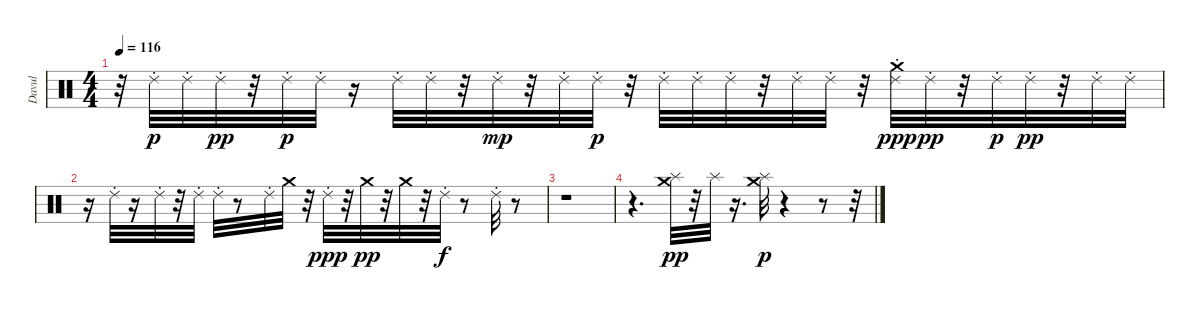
\track ("Davul" "Davul") {instrument percussion}
\staff {score}
\articulation defaults
\ts (4 4)
\tempo 116
\clef neutral
\ks c
r.32{dy p} "Ride (choke) 2".32 "Ride (choke) 2".32 "Ride (choke) 2".32{dy pp} r.32 "Ride (choke) 2".32{dy p} "Ride (choke) 2".32 r.16 "Ride (choke) 2".32 "Ride (choke) 2".32 r.32 "Ride (choke) 2".32{dy mp} r.32 "Ride (choke) 2".32 "Ride (choke) 2".32{dy p} r.32 "Ride (choke) 2".32 "Ride (choke) 2".32 "Ride (choke) 2".32 r.32 "Ride (choke) 2".32 "Ride (choke) 2".32 r.32 ("Ride (choke) 2" "Crash medium (hit)").32{dy ppp} "Ride (choke) 2".32{dy pp} r.32 "Ride (choke) 2".32{dy p} "Ride (choke) 2".32{dy pp} r.32 "Ride (choke) 2".32 "Ride (choke) 2".32 |
r.16 "Ride (choke) 2".32 r.16 "Ride (choke) 2".32 r.32 "Ride (choke) 2".32 "Ride (choke) 2".32 r.8 "Ride (choke) 2".32 "Crash medium (hit)".32 r.32 "Ride (choke) 2".32{dy ppp} r.32 "Crash medium (hit)".32{dy pp} r.32 "Crash medium (hit)".32 r.32 "Ride (choke) 2".32{dy f} r.8 "Ride (choke) 2".32 r.8 |
r.1 |
r.4{d} ("Splash (hit)" "Crash medium (hit)").32{dy pp} r.32 "Splash (hit)".32 r.16{d} ("Splash (hit)" "Crash medium (hit)").32{dy p} r.4 r.8 r.32
